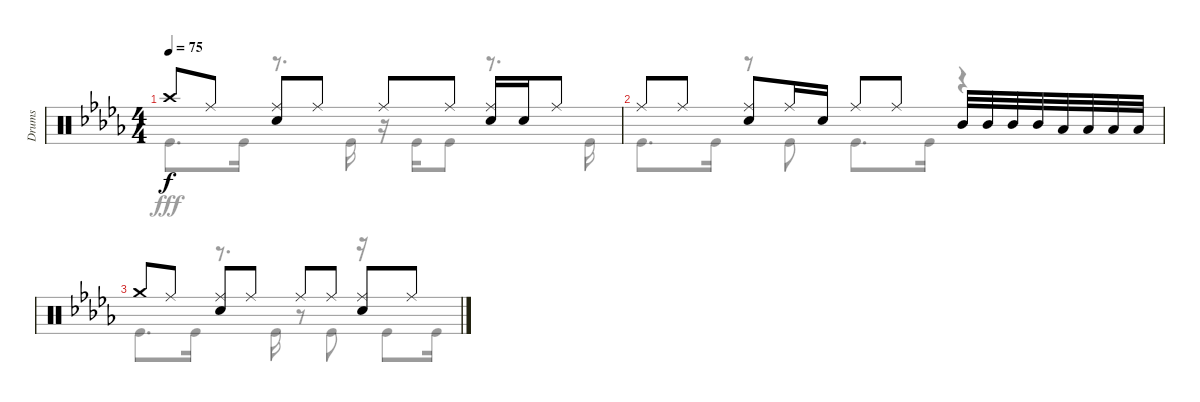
\track ("Drums" "Drums") {instrument percussion}
\staff {score}
\articulation defaults
\voice
\ts (4 4)
\tempo 75
\clef neutral
\ks db "Crash high (hit)".8{dy f} "Ride (middle)".8
("Ride (middle)" "Snare (hit) 2").8 "Ride (middle)".8 "Ride (middle)".8 "Ride (middle)".8 ("Ride (middle)" "Snare (hit) 2").16 "Snare (hit) 2".16 "Ride (middle)".8 |
"Ride (middle)".8 "Ride (middle)".8 ("Ride (middle)" "Snare (hit) 2").8 "Ride (middle)".16 "Snare (hit) 2".16 "Ride (middle)".8 "Ride (middle)".8 "Mid Tom (hit)".32 "Mid Tom (hit)".32 "Mid Tom (hit)".32 "Mid Tom (hit)".32 "Low Tom (hit)".32 "Low Tom (hit)".32 "Low Tom (hit)".32 "Low Tom (hit)".32 |
"Crash medium (hit)".8 "Ride (middle)".8 ("Ride (middle)" "Snare (hit) 2").8 "Ride (middle)".8 "Ride (middle)".8 "Ride (middle)".8 ("Ride (middle)" "Snare (hit) 2").8 "Ride (middle)".8
\voice
\clef neutral
\ottava regular
\simile none
\ks db "Kick (hit)".8{d dy fff} "Kick (hit)".16
r.8{d} "Kick (hit)".16 r.16 "Kick (hit)".16 "Kick (hit)".8 r.8{d} "Kick (hit)".16 |
"Kick (hit)".8{d} "Kick (hit)".16 r.8 "Kick (hit)".8 "Kick (hit)".8{d} "Kick (hit)".16 r.4 |
"Kick (hit)".8{d} "Kick (hit)".16 r.8{d} "Kick (hit)".16 r.8 "Kick (hit)".8 r.16 "Kick (hit)".8 "Kick (hit)".16
